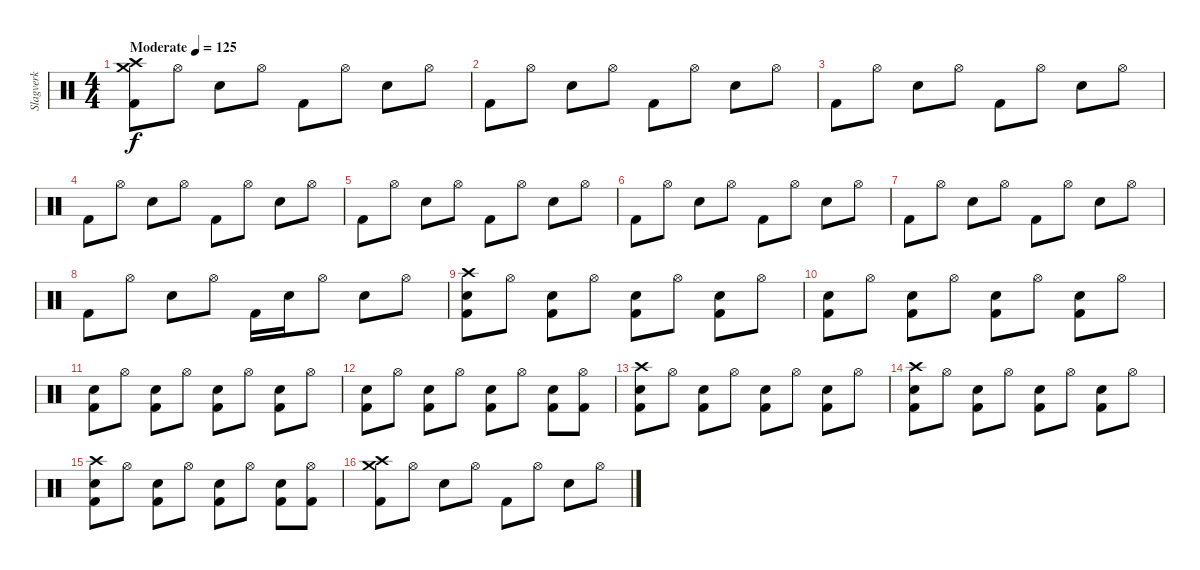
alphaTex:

\track ("Slagverk" "Slagverk") {instrument percussion}
\staff {score}
\articulation defaults
\ts (4 4)
\tempo (125 "Moderate")
\clef neutral
\ks c
("Crash high (hit)" "Crash medium (hit)" "Kick (hit) 2").8{dy f} "Hi-Hat (open)".8 "Electric Snare (hit)".8 "Hi-Hat (open)".8 "Kick (hit) 2".8 "Hi-Hat (open)".8 "Electric Snare (hit)".8 "Hi-Hat (open)".8 |
"Kick (hit) 2".8 "Hi-Hat (open)".8 "Electric Snare (hit)".8 "Hi-Hat (open)".8 "Kick (hit) 2".8 "Hi-Hat (open)".8 "Electric Snare (hit)".8 "Hi-Hat (open)".8 |
"Kick (hit) 2".8 "Hi-Hat (open)".8 "Electric Snare (hit)".8 "Hi-Hat (open)".8 "Kick (hit) 2".8 "Hi-Hat (open)".8 "Electric Snare (hit)".8 "Hi-Hat (open)".8 |
"Kick (hit) 2".8 "Hi-Hat (open)".8 "Electric Snare (hit)".8 "Hi-Hat (open)".8 "Kick (hit) 2".8 "Hi-Hat (open)".8 "Electric Snare (hit)".8 "Hi-Hat (open)".8 |
"Kick (hit) 2".8 "Hi-Hat (open)".8 "Electric Snare (hit)".8 "Hi-Hat (open)".8 "Kick (hit) 2".8 "Hi-Hat (open)".8 "Electric Snare (hit)".8 "Hi-Hat (open)".8 |
"Kick (hit) 2".8 "Hi-Hat (open)".8 "Electric Snare (hit)".8 "Hi-Hat (open)".8 "Kick (hit) 2".8 "Hi-Hat (open)".8 "Electric Snare (hit)".8 "Hi-Hat (open)".8 |
"Kick (hit) 2".8 "Hi-Hat (open)".8 "Electric Snare (hit)".8 "Hi-Hat (open)".8 "Kick (hit) 2".8 "Hi-Hat (open)".8 "Electric Snare (hit)".8 "Hi-Hat (open)".8 |
"Kick (hit) 2".8 "Hi-Hat (open)".8 "Electric Snare (hit)".8 "Hi-Hat (open)".8 "Kick (hit) 2".16 "Electric Snare (hit)".16 "Hi-Hat (open)".8 "Electric Snare (hit)".8 "Hi-Hat (open)".8 |
("Crash high (hit)" "Kick (hit) 2" "Electric Snare (hit)").8 "Hi-Hat (open)".8 ("Kick (hit) 2" "Electric Snare (hit)").8 "Hi-Hat (open)".8 ("Kick (hit) 2" "Electric Snare (hit)").8 "Hi-Hat (open)".8 ("Kick (hit) 2" "Electric Snare (hit)").8 "Hi-Hat (open)".8 |
("Kick (hit) 2" "Electric Snare (hit)").8 "Hi-Hat (open)".8 ("Kick (hit) 2" "Electric Snare (hit)").8 "Hi-Hat (open)".8 ("Kick (hit) 2" "Electric Snare (hit)").8 "Hi-Hat (open)".8 ("Kick (hit) 2" "Electric Snare (hit)").8 "Hi-Hat (open)".8 |
("Kick (hit) 2" "Electric Snare (hit)").8 "Hi-Hat (open)".8 ("Kick (hit) 2" "Electric Snare (hit)").8 "Hi-Hat (open)".8 ("Kick (hit) 2" "Electric Snare (hit)").8 "Hi-Hat (open)".8 ("Kick (hit) 2" "Electric Snare (hit)").8 "Hi-Hat (open)".8 |
("Kick (hit) 2" "Electric Snare (hit)").8 "Hi-Hat (open)".8 ("Kick (hit) 2" "Electric Snare (hit)").8 "Hi-Hat (open)".8 ("Kick (hit) 2" "Electric Snare (hit)").8 "Hi-Hat (open)".8 ("Kick (hit) 2" "Electric Snare (hit)").8 ("Kick (hit) 2" "Hi-Hat (open)").8 |
("Crash high (hit)" "Kick (hit) 2" "Electric Snare (hit)").8 "Hi-Hat (open)".8 ("Kick (hit) 2" "Electric Snare (hit)").8 "Hi-Hat (open)".8 ("Kick (hit) 2" "Electric Snare (hit)").8 "Hi-Hat (open)".8 ("Kick (hit) 2" "Electric Snare (hit)").8 "Hi-Hat (open)".8 |
("Crash high (hit)" "Kick (hit) 2" "Electric Snare (hit)").8 "Hi-Hat (open)".8 ("Kick (hit) 2" "Electric Snare (hit)").8 "Hi-Hat (open)".8 ("Kick (hit) 2" "Electric Snare (hit)").8 "Hi-Hat (open)".8 ("Kick (hit) 2" "Electric Snare (hit)").8 "Hi-Hat (open)".8 |
("Crash high (hit)" "Kick (hit) 2" "Electric Snare (hit)").8 "Hi-Hat (open)".8 ("Kick (hit) 2" "Electric Snare (hit)").8 "Hi-Hat (open)".8 ("Kick (hit) 2" "Electric Snare (hit)").8 "Hi-Hat (open)".8 ("Kick (hit) 2" "Electric Snare (hit)").8 ("Kick (hit) 2" "Hi-Hat (open)").8 |
("Crash high (hit)" "Crash medium (hit)" "Kick (hit) 2").8 "Hi-Hat (open)".8 "Electric Snare (hit)".8 "Hi-Hat (open)".8 "Kick (hit) 2".8 "Hi-Hat (open)".8 "Electric Snare (hit)".8 "Hi-Hat (open)".8
